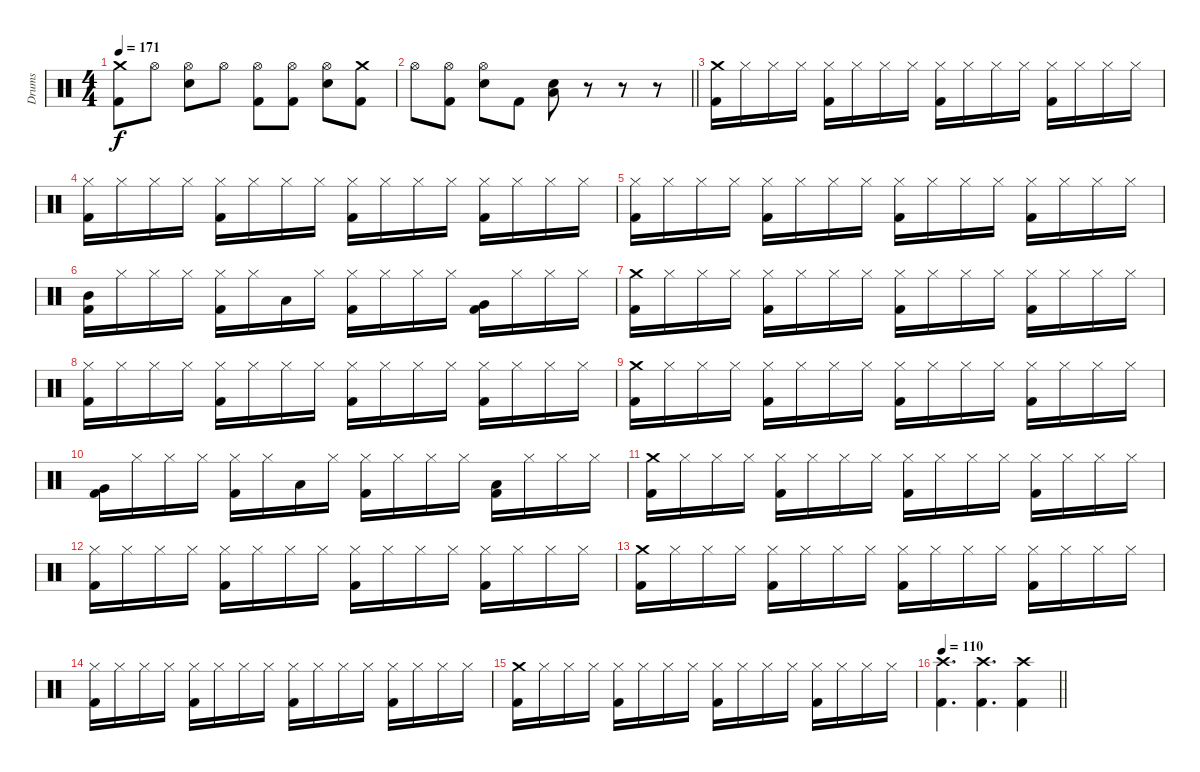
\track ("Drums" "Drums") {instrument percussion}
\staff {score}
\articulation defaults
\ts (4 4)
\tempo 171
\clef neutral
\ks c
("Crash medium (hit)" "Kick (hit) 2").8{dy f} "Hi-Hat (open)".8 ("Hi-Hat (open)" "Electric Snare (hit)").8 "Hi-Hat (open)".8 ("Hi-Hat (open)" "Kick (hit) 2").8 ("Hi-Hat (open)" "Kick (hit) 2").8 ("Hi-Hat (open)" "Electric Snare (hit)").8 ("Crash medium (hit)" "Kick (hit) 2").8 |
\barLineRight lightlight "Hi-Hat (open)".8
("Hi-Hat (open)" "Kick (hit) 2").8 ("Hi-Hat (open)" "Electric Snare (hit)").8 "Kick (hit) 2".8 ("Electric Snare (hit)" "Low Floor Tom (hit)").8 r.8 r.8 r.8 |
("Crash medium (hit)" "Kick (hit) 2").16 "Hi-Hat (closed)".16 "Hi-Hat (closed)".16 "Hi-Hat (closed)".16 ("Hi-Hat (closed)" "Kick (hit) 2").16 "Hi-Hat (closed)".16 "Hi-Hat (closed)".16 "Hi-Hat (closed)".16 ("Hi-Hat (closed)" "Kick (hit) 2").16 "Hi-Hat (closed)".16 "Hi-Hat (closed)".16 "Hi-Hat (closed)".16 ("Hi-Hat (closed)" "Kick (hit) 2").16 "Hi-Hat (closed)".16 "Hi-Hat (closed)".16 "Hi-Hat (closed)".16 |
("Hi-Hat (closed)" "Kick (hit) 2").16 "Hi-Hat (closed)".16 "Hi-Hat (closed)".16 "Hi-Hat (closed)".16 ("Hi-Hat (closed)" "Kick (hit) 2").16 "Hi-Hat (closed)".16 "Hi-Hat (closed)".16 "Hi-Hat (closed)".16 ("Hi-Hat (closed)" "Kick (hit) 2").16 "Hi-Hat (closed)".16 "Hi-Hat (closed)".16 "Hi-Hat (closed)".16 ("Hi-Hat (closed)" "Kick (hit) 2").16 "Hi-Hat (closed)".16 "Hi-Hat (closed)".16 "Hi-Hat (closed)".16 |
("Hi-Hat (closed)" "Kick (hit) 2").16 "Hi-Hat (closed)".16 "Hi-Hat (closed)".16 "Hi-Hat (closed)".16 ("Hi-Hat (closed)" "Kick (hit) 2").16 "Hi-Hat (closed)".16 "Hi-Hat (closed)".16 "Hi-Hat (closed)".16 ("Hi-Hat (closed)" "Kick (hit) 2").16 "Hi-Hat (closed)".16 "Hi-Hat (closed)".16 "Hi-Hat (closed)".16 ("Hi-Hat (closed)" "Kick (hit) 2").16 "Hi-Hat (closed)".16 "Hi-Hat (closed)".16 "Hi-Hat (closed)".16 |
("Mid Tom (hit)" "Kick (hit) 2").16 "Hi-Hat (closed)".16 "Hi-Hat (closed)".16 "Hi-Hat (closed)".16 ("Hi-Hat (closed)" "Kick (hit) 2").16 "Hi-Hat (closed)".16 "Low Tom (hit)".16 "Hi-Hat (closed)".16 ("Hi-Hat (closed)" "Kick (hit) 2").16 "Hi-Hat (closed)".16 "Hi-Hat (closed)".16 "Hi-Hat (closed)".16 ("Very Low Tom (hit)" "Kick (hit) 2").16 "Hi-Hat (closed)".16 "Hi-Hat (closed)".16 "Hi-Hat (closed)".16 |
("Crash medium (hit)" "Kick (hit) 2").16 "Hi-Hat (closed)".16 "Hi-Hat (closed)".16 "Hi-Hat (closed)".16 ("Hi-Hat (closed)" "Kick (hit) 2").16 "Hi-Hat (closed)".16 "Hi-Hat (closed)".16 "Hi-Hat (closed)".16 ("Hi-Hat (closed)" "Kick (hit) 2").16 "Hi-Hat (closed)".16 "Hi-Hat (closed)".16 "Hi-Hat (closed)".16 ("Hi-Hat (closed)" "Kick (hit) 2").16 "Hi-Hat (closed)".16 "Hi-Hat (closed)".16 "Hi-Hat (closed)".16 |
("Hi-Hat (closed)" "Kick (hit) 2").16 "Hi-Hat (closed)".16 "Hi-Hat (closed)".16 "Hi-Hat (closed)".16 ("Hi-Hat (closed)" "Kick (hit) 2").16 "Hi-Hat (closed)".16 "Hi-Hat (closed)".16 "Hi-Hat (closed)".16 ("Hi-Hat (closed)" "Kick (hit) 2").16 "Hi-Hat (closed)".16 "Hi-Hat (closed)".16 "Hi-Hat (closed)".16 ("Hi-Hat (closed)" "Kick (hit) 2").16 "Hi-Hat (closed)".16 "Hi-Hat (closed)".16 "Hi-Hat (closed)".16 |
("Crash medium (hit)" "Kick (hit) 2").16 "Hi-Hat (closed)".16 "Hi-Hat (closed)".16 "Hi-Hat (closed)".16 ("Hi-Hat (closed)" "Kick (hit) 2").16 "Hi-Hat (closed)".16 "Hi-Hat (closed)".16 "Hi-Hat (closed)".16 ("Hi-Hat (closed)" "Kick (hit) 2").16 "Hi-Hat (closed)".16 "Hi-Hat (closed)".16 "Hi-Hat (closed)".16 ("Hi-Hat (closed)" "Kick (hit) 2").16 "Hi-Hat (closed)".16 "Hi-Hat (closed)".16 "Hi-Hat (closed)".16 |
("Very Low Tom (hit)" "Kick (hit) 2").16 "Hi-Hat (closed)".16 "Hi-Hat (closed)".16 "Hi-Hat (closed)".16 ("Hi-Hat (closed)" "Kick (hit) 2").16 "Hi-Hat (closed)".16 "Low Floor Tom (hit)".16 "Hi-Hat (closed)".16 ("Hi-Hat (closed)" "Kick (hit) 2").16 "Hi-Hat (closed)".16 "Hi-Hat (closed)".16 "Hi-Hat (closed)".16 ("Low Floor Tom (hit)" "Kick (hit) 2").16 "Hi-Hat (closed)".16 "Hi-Hat (closed)".16 "Hi-Hat (closed)".16 |
("Crash medium (hit)" "Kick (hit) 2").16 "Hi-Hat (closed)".16 "Hi-Hat (closed)".16 "Hi-Hat (closed)".16 ("Hi-Hat (closed)" "Kick (hit) 2").16 "Hi-Hat (closed)".16 "Hi-Hat (closed)".16 "Hi-Hat (closed)".16 ("Hi-Hat (closed)" "Kick (hit) 2").16 "Hi-Hat (closed)".16 "Hi-Hat (closed)".16 "Hi-Hat (closed)".16 ("Hi-Hat (closed)" "Kick (hit) 2").16 "Hi-Hat (closed)".16 "Hi-Hat (closed)".16 "Hi-Hat (closed)".16 |
("Hi-Hat (closed)" "Kick (hit) 2").16 "Hi-Hat (closed)".16 "Hi-Hat (closed)".16 "Hi-Hat (closed)".16 ("Hi-Hat (closed)" "Kick (hit) 2").16 "Hi-Hat (closed)".16 "Hi-Hat (closed)".16 "Hi-Hat (closed)".16 ("Hi-Hat (closed)" "Kick (hit) 2").16 "Hi-Hat (closed)".16 "Hi-Hat (closed)".16 "Hi-Hat (closed)".16 ("Hi-Hat (closed)" "Kick (hit) 2").16 "Hi-Hat (closed)".16 "Hi-Hat (closed)".16 "Hi-Hat (closed)".16 |
("Crash medium (hit)" "Kick (hit) 2").16 "Hi-Hat (closed)".16 "Hi-Hat (closed)".16 "Hi-Hat (closed)".16 ("Hi-Hat (closed)" "Kick (hit) 2").16 "Hi-Hat (closed)".16 "Hi-Hat (closed)".16 "Hi-Hat (closed)".16 ("Hi-Hat (closed)" "Kick (hit) 2").16 "Hi-Hat (closed)".16 "Hi-Hat (closed)".16 "Hi-Hat (closed)".16 ("Hi-Hat (closed)" "Kick (hit) 2").16 "Hi-Hat (closed)".16 "Hi-Hat (closed)".16 "Hi-Hat (closed)".16 |
("Hi-Hat (closed)" "Kick (hit) 2").16 "Hi-Hat (closed)".16 "Hi-Hat (closed)".16 "Hi-Hat (closed)".16 ("Hi-Hat (closed)" "Kick (hit) 2").16 "Hi-Hat (closed)".16 "Hi-Hat (closed)".16 "Hi-Hat (closed)".16 ("Hi-Hat (closed)" "Kick (hit) 2").16 "Hi-Hat (closed)".16 "Hi-Hat (closed)".16 "Hi-Hat (closed)".16 ("Hi-Hat (closed)" "Kick (hit) 2").16 "Hi-Hat (closed)".16 "Hi-Hat (closed)".16 "Hi-Hat (closed)".16 |
("Crash medium (hit)" "Kick (hit) 2").16 "Hi-Hat (closed)".16 "Hi-Hat (closed)".16 "Hi-Hat (closed)".16 ("Hi-Hat (closed)" "Kick (hit) 2").16 "Hi-Hat (closed)".16 "Hi-Hat (closed)".16 "Hi-Hat (closed)".16 ("Hi-Hat (closed)" "Kick (hit) 2").16 "Hi-Hat (closed)".16 "Hi-Hat (closed)".16 "Hi-Hat (closed)".16 ("Hi-Hat (closed)" "Kick (hit) 2").16 "Hi-Hat (closed)".16 "Hi-Hat (closed)".16 "Hi-Hat (closed)".16 |
\tempo 110
\barLineRight lightlight
("Crash high (hit)" "Kick (hit) 2").4{d} ("Crash high (hit)" "Kick (hit) 2").4{d} ("Crash high (hit)" "Kick (hit) 2").4
